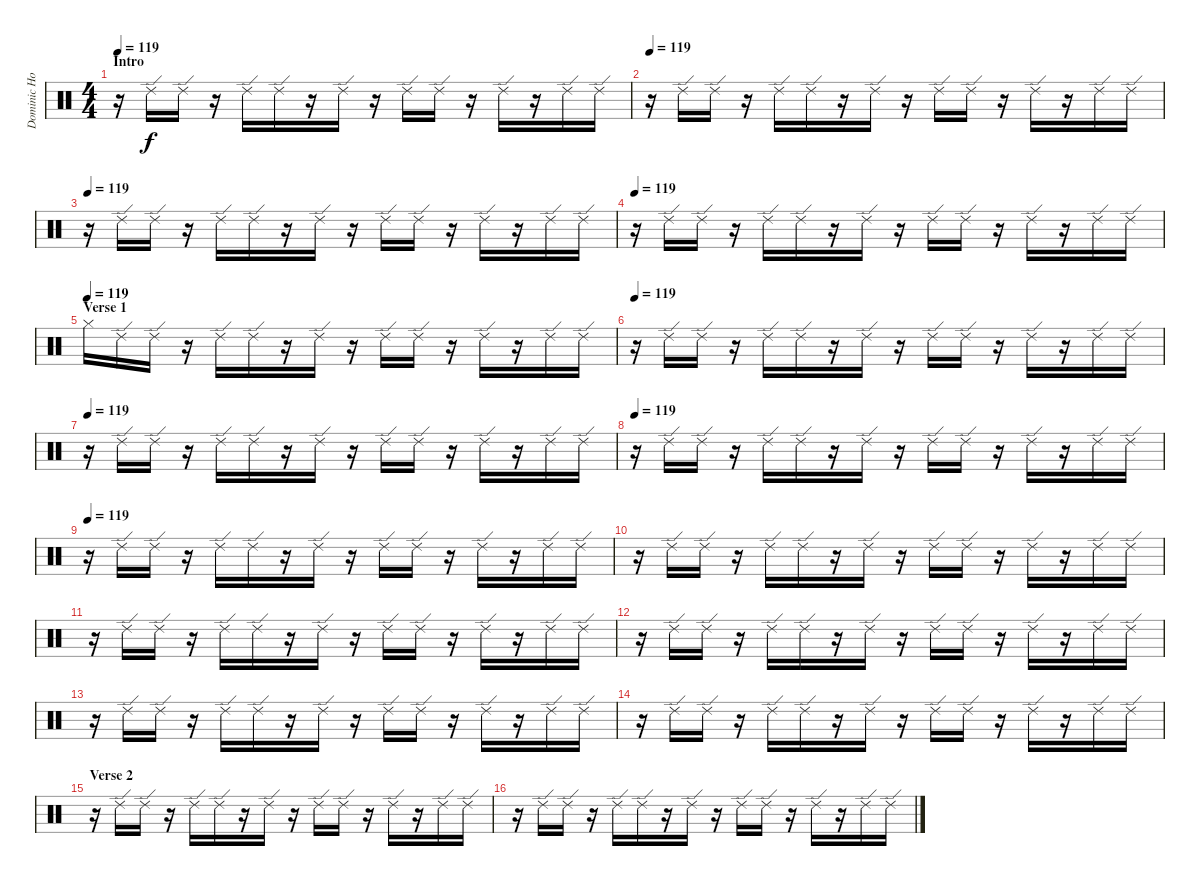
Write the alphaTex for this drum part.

\track ("Dominic Howard" "Dominic Ho") {instrument percussion}
\staff {score}
\articulation defaults
\ts (4 4)
\section ("" "Intro")
\tempo 119
\clef neutral
\ks c
r.16{dy f} "Ride (edge) 2".16 "Ride (edge) 2".16 r.16 "Ride (edge) 2".16 "Ride (edge) 2".16 r.16 "Ride (edge) 2".16 r.16 "Ride (edge) 2".16 "Ride (edge) 2".16 r.16 "Ride (edge) 2".16 r.16 "Ride (edge) 2".16 "Ride (edge) 2".16 |
\tempo 119
r.16 "Ride (edge) 2".16 "Ride (edge) 2".16 r.16 "Ride (edge) 2".16 "Ride (edge) 2".16 r.16 "Ride (edge) 2".16 r.16 "Ride (edge) 2".16 "Ride (edge) 2".16 r.16 "Ride (edge) 2".16 r.16 "Ride (edge) 2".16 "Ride (edge) 2".16 |
\tempo 119
r.16 "Ride (edge) 2".16 "Ride (edge) 2".16 r.16 "Ride (edge) 2".16 "Ride (edge) 2".16 r.16 "Ride (edge) 2".16 r.16 "Ride (edge) 2".16 "Ride (edge) 2".16 r.16 "Ride (edge) 2".16 r.16 "Ride (edge) 2".16 "Ride (edge) 2".16 |
\tempo 119
r.16 "Ride (edge) 2".16 "Ride (edge) 2".16 r.16 "Ride (edge) 2".16 "Ride (edge) 2".16 r.16 "Ride (edge) 2".16 r.16 "Ride (edge) 2".16 "Ride (edge) 2".16 r.16 "Ride (edge) 2".16 r.16 "Ride (edge) 2".16 "Ride (edge) 2".16 |
\section ("" "Verse 1")
\tempo (119)
"Hi-Hat (closed)".16 "Ride (edge) 2".16 "Ride (edge) 2".16 r.16 "Ride (edge) 2".16 "Ride (edge) 2".16 r.16 "Ride (edge) 2".16 r.16 "Ride (edge) 2".16 "Ride (edge) 2".16 r.16 "Ride (edge) 2".16 r.16 "Ride (edge) 2".16 "Ride (edge) 2".16 |
\tempo 119
r.16 "Ride (edge) 2".16 "Ride (edge) 2".16 r.16 "Ride (edge) 2".16 "Ride (edge) 2".16 r.16 "Ride (edge) 2".16 r.16 "Ride (edge) 2".16 "Ride (edge) 2".16 r.16 "Ride (edge) 2".16 r.16 "Ride (edge) 2".16 "Ride (edge) 2".16 |
\tempo 119
r.16 "Ride (edge) 2".16 "Ride (edge) 2".16 r.16 "Ride (edge) 2".16 "Ride (edge) 2".16 r.16 "Ride (edge) 2".16 r.16 "Ride (edge) 2".16 "Ride (edge) 2".16 r.16 "Ride (edge) 2".16 r.16 "Ride (edge) 2".16 "Ride (edge) 2".16 |
\tempo 119
r.16 "Ride (edge) 2".16 "Ride (edge) 2".16 r.16 "Ride (edge) 2".16 "Ride (edge) 2".16 r.16 "Ride (edge) 2".16 r.16 "Ride (edge) 2".16 "Ride (edge) 2".16 r.16 "Ride (edge) 2".16 r.16 "Ride (edge) 2".16 "Ride (edge) 2".16 |
\tempo 119
r.16 "Ride (edge) 2".16 "Ride (edge) 2".16 r.16 "Ride (edge) 2".16 "Ride (edge) 2".16 r.16 "Ride (edge) 2".16 r.16 "Ride (edge) 2".16 "Ride (edge) 2".16 r.16 "Ride (edge) 2".16 r.16 "Ride (edge) 2".16 "Ride (edge) 2".16 |
r.16 "Ride (edge) 2".16 "Ride (edge) 2".16 r.16 "Ride (edge) 2".16 "Ride (edge) 2".16 r.16 "Ride (edge) 2".16 r.16 "Ride (edge) 2".16 "Ride (edge) 2".16 r.16 "Ride (edge) 2".16 r.16 "Ride (edge) 2".16 "Ride (edge) 2".16 |
r.16 "Ride (edge) 2".16 "Ride (edge) 2".16 r.16 "Ride (edge) 2".16 "Ride (edge) 2".16 r.16 "Ride (edge) 2".16 r.16 "Ride (edge) 2".16 "Ride (edge) 2".16 r.16 "Ride (edge) 2".16 r.16 "Ride (edge) 2".16 "Ride (edge) 2".16 |
r.16 "Ride (edge) 2".16 "Ride (edge) 2".16 r.16 "Ride (edge) 2".16 "Ride (edge) 2".16 r.16 "Ride (edge) 2".16 r.16 "Ride (edge) 2".16 "Ride (edge) 2".16 r.16 "Ride (edge) 2".16 r.16 "Ride (edge) 2".16 "Ride (edge) 2".16 |
r.16 "Ride (edge) 2".16 "Ride (edge) 2".16 r.16 "Ride (edge) 2".16 "Ride (edge) 2".16 r.16 "Ride (edge) 2".16 r.16 "Ride (edge) 2".16 "Ride (edge) 2".16 r.16 "Ride (edge) 2".16 r.16 "Ride (edge) 2".16 "Ride (edge) 2".16 |
r.16 "Ride (edge) 2".16 "Ride (edge) 2".16 r.16 "Ride (edge) 2".16 "Ride (edge) 2".16 r.16 "Ride (edge) 2".16 r.16 "Ride (edge) 2".16 "Ride (edge) 2".16 r.16 "Ride (edge) 2".16 r.16 "Ride (edge) 2".16 "Ride (edge) 2".16 |
\section ("" "Verse 2")
r.16 "Ride (edge) 2".16 "Ride (edge) 2".16 r.16 "Ride (edge) 2".16 "Ride (edge) 2".16 r.16 "Ride (edge) 2".16 r.16 "Ride (edge) 2".16 "Ride (edge) 2".16 r.16 "Ride (edge) 2".16 r.16 "Ride (edge) 2".16 "Ride (edge) 2".16 |
r.16 "Ride (edge) 2".16 "Ride (edge) 2".16 r.16 "Ride (edge) 2".16 "Ride (edge) 2".16 r.16 "Ride (edge) 2".16 r.16 "Ride (edge) 2".16 "Ride (edge) 2".16 r.16 "Ride (edge) 2".16 r.16 "Ride (edge) 2".16 "Ride (edge) 2".16
